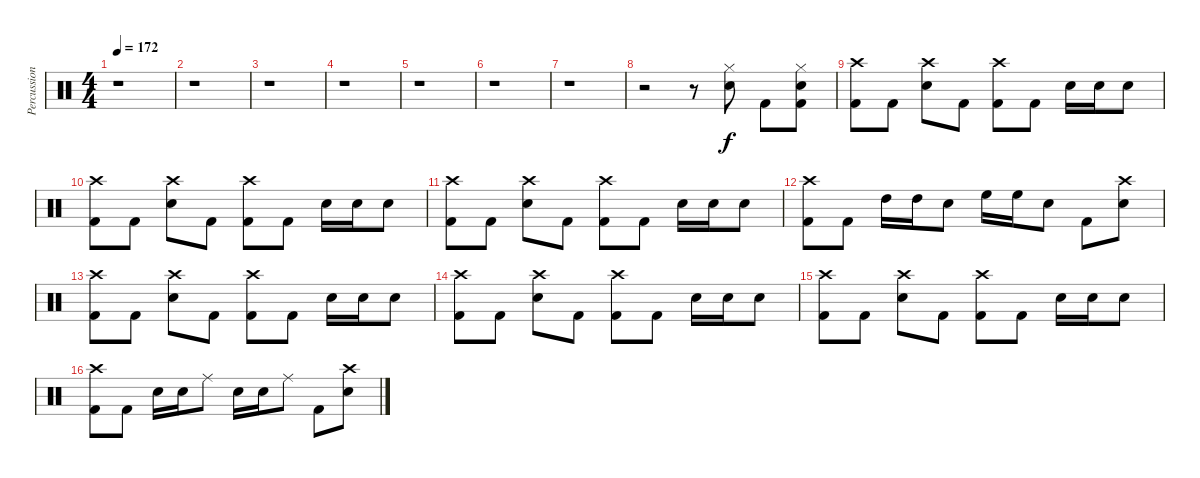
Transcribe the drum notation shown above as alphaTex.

\track ("Percussion" "Percussion") {instrument percussion}
\staff {score}
\articulation defaults
\ts (4 4)
\tempo 172
\clef neutral
\ks c
r.1{dy f} |
r.1 |
r.1 |
r.1 |
r.1 |
r.1 |
r.1 |
r.2 r.8 ("Hi-Hat (closed)" "Snare (hit) 2").8 "Kick (hit) 2".8 ("Hi-Hat (closed)" "Snare (hit) 2" "Kick (hit) 2").8 |
("Crash high (hit)" "Kick (hit) 2").8 "Kick (hit) 2".8 ("Crash high (hit)" "Snare (hit) 2").8 "Kick (hit) 2".8 ("Crash high (hit)" "Kick (hit) 2").8 "Kick (hit) 2".8 "Snare (hit) 2".16 "Snare (hit) 2".16 "Snare (hit) 2".8 |
("Crash high (hit)" "Kick (hit) 2").8 "Kick (hit) 2".8 ("Crash high (hit)" "Snare (hit) 2").8 "Kick (hit) 2".8 ("Crash high (hit)" "Kick (hit) 2").8 "Kick (hit) 2".8 "Snare (hit) 2".16 "Snare (hit) 2".16 "Snare (hit) 2".8 |
("Crash high (hit)" "Kick (hit) 2").8 "Kick (hit) 2".8 ("Crash high (hit)" "Snare (hit) 2").8 "Kick (hit) 2".8 ("Crash high (hit)" "Kick (hit) 2").8 "Kick (hit) 2".8 "Snare (hit) 2".16 "Snare (hit) 2".16 "Snare (hit) 2".8 |
("Crash high (hit)" "Kick (hit) 2").8 "Kick (hit) 2".8 "High Tom (hit)".16 "High Tom (hit)".16 "Snare (hit) 2".8 "High Floor Tom (hit)".16 "High Floor Tom (hit)".16 "Snare (hit) 2".8 "Kick (hit) 2".8 ("Crash high (hit)" "Snare (hit) 2").8 |
("Crash high (hit)" "Kick (hit) 2").8 "Kick (hit) 2".8 ("Crash high (hit)" "Snare (hit) 2").8 "Kick (hit) 2".8 ("Crash high (hit)" "Kick (hit) 2").8 "Kick (hit) 2".8 "Snare (hit) 2".16 "Snare (hit) 2".16 "Snare (hit) 2".8 |
("Crash high (hit)" "Kick (hit) 2").8 "Kick (hit) 2".8 ("Crash high (hit)" "Snare (hit) 2").8 "Kick (hit) 2".8 ("Crash high (hit)" "Kick (hit) 2").8 "Kick (hit) 2".8 "Snare (hit) 2".16 "Snare (hit) 2".16 "Snare (hit) 2".8 |
("Crash high (hit)" "Kick (hit) 2").8 "Kick (hit) 2".8 ("Crash high (hit)" "Snare (hit) 2").8 "Kick (hit) 2".8 ("Crash high (hit)" "Kick (hit) 2").8 "Kick (hit) 2".8 "Snare (hit) 2".16 "Snare (hit) 2".16 "Snare (hit) 2".8 |
("Crash high (hit)" "Kick (hit) 2").8 "Kick (hit) 2".8 "Snare (hit) 2".16 "Snare (hit) 2".16 "Ride (middle)".8 "Snare (hit) 2".16 "Snare (hit) 2".16 "Ride (middle)".8 "Kick (hit) 2".8 ("Crash high (hit)" "Snare (hit) 2").8
